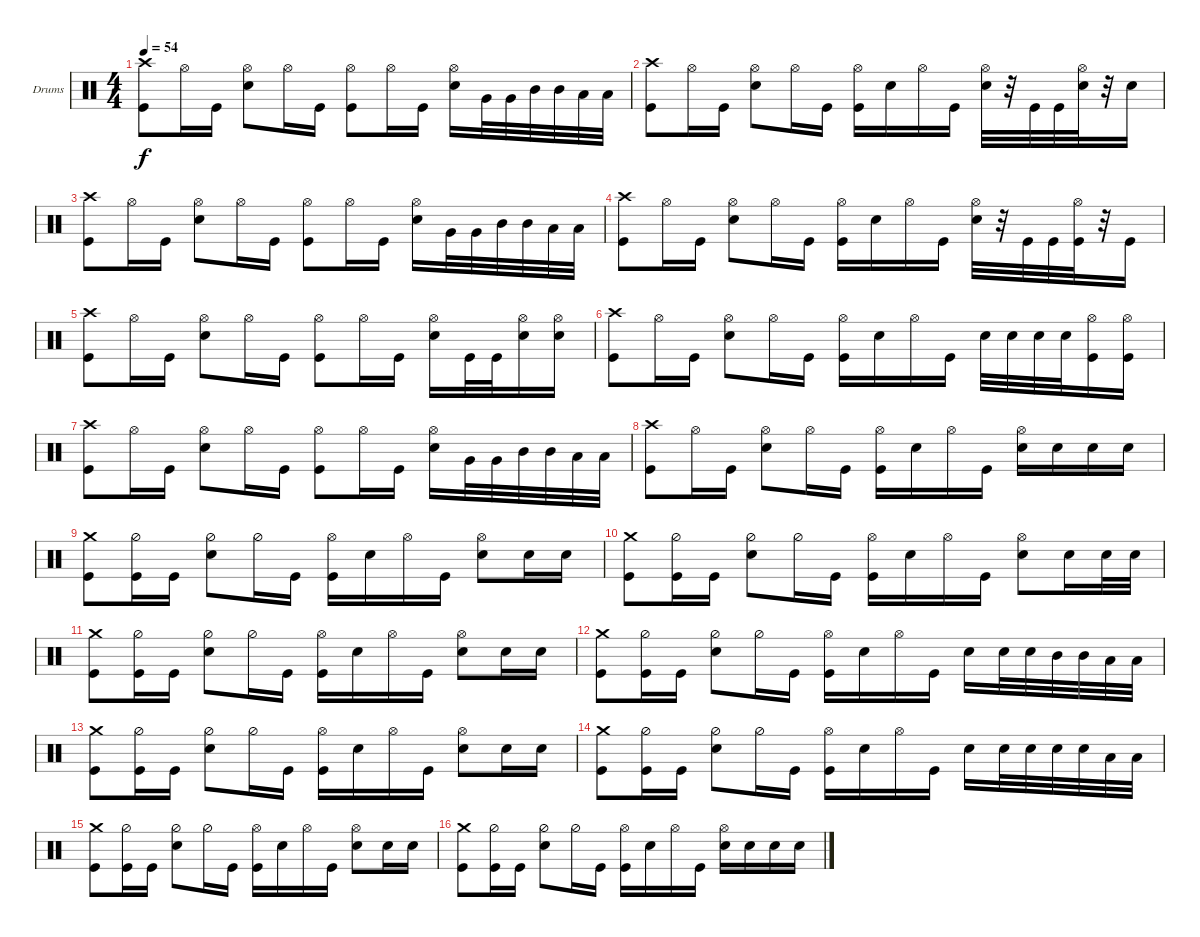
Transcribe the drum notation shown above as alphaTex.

\bracketExtendMode groupsimilarinstruments
\firstSystemTrackNameOrientation horizontal
\otherSystemsTrackNameOrientation horizontal
\track ("Drumkit" "Drums") {instrument percussion}
\staff {score}
\articulation defaults
\ts (4 4)
\tempo 54
\clef neutral
\ks c
("Crash high (hit)" "Kick (hit)").8{dy f} "Hi-Hat (open)".16 "Kick (hit)".16 ("Snare (hit) 2" "Hi-Hat (open)").8 "Hi-Hat (open)".16 "Kick (hit)".16 ("Hi-Hat (open)" "Kick (hit)").8 "Hi-Hat (open)".16 "Kick (hit)".16 ("Snare (hit) 2" "Hi-Hat (open)").16 "Very Low Tom (hit)".32 "Very Low Tom (hit)".32 "Mid Tom (hit)".32 "Mid Tom (hit)".32 "Low Tom (hit)".32 "Low Tom (hit)".32 |
("Crash high (hit)" "Kick (hit)").8 "Hi-Hat (open)".16 "Kick (hit)".16 ("Snare (hit) 2" "Hi-Hat (open)").8 "Hi-Hat (open)".16 "Kick (hit)".16 ("Hi-Hat (open)" "Kick (hit)").16 "Snare (hit) 2".16 "Hi-Hat (open)".16 "Kick (hit)".16 ("Snare (hit) 2" "Hi-Hat (open)").32 r.32 "Kick (hit)".32 "Kick (hit)".32 ("Snare (hit) 2" "Hi-Hat (open)").32 r.32 "Snare (hit) 2".16 |
("Crash high (hit)" "Kick (hit)").8 "Hi-Hat (open)".16 "Kick (hit)".16 ("Snare (hit) 2" "Hi-Hat (open)").8 "Hi-Hat (open)".16 "Kick (hit)".16 ("Hi-Hat (open)" "Kick (hit)").8 "Hi-Hat (open)".16 "Kick (hit)".16 ("Snare (hit) 2" "Hi-Hat (open)").16 "Very Low Tom (hit)".32 "Very Low Tom (hit)".32 "Mid Tom (hit)".32 "Mid Tom (hit)".32 "Low Tom (hit)".32 "Low Tom (hit)".32 |
("Crash high (hit)" "Kick (hit)").8 "Hi-Hat (open)".16 "Kick (hit)".16 ("Snare (hit) 2" "Hi-Hat (open)").8 "Hi-Hat (open)".16 "Kick (hit)".16 ("Hi-Hat (open)" "Kick (hit)").16 "Snare (hit) 2".16 "Hi-Hat (open)".16 "Kick (hit)".16 ("Snare (hit) 2" "Hi-Hat (open)").32 r.32 "Kick (hit)".32 "Kick (hit)".32 ("Hi-Hat (open)" "Kick (hit)").32 r.32 "Kick (hit)".16 |
("Crash high (hit)" "Kick (hit)").8 "Hi-Hat (open)".16 "Kick (hit)".16 ("Snare (hit) 2" "Hi-Hat (open)").8 "Hi-Hat (open)".16 "Kick (hit)".16 ("Hi-Hat (open)" "Kick (hit)").8 "Hi-Hat (open)".16 "Kick (hit)".16 ("Snare (hit) 2" "Hi-Hat (open)").16 "Kick (hit)".32 "Kick (hit)".32 ("Snare (hit) 2" "Hi-Hat (open)").16 ("Snare (hit) 2" "Hi-Hat (open)").16 |
("Crash high (hit)" "Kick (hit)").8 "Hi-Hat (open)".16 "Kick (hit)".16 ("Snare (hit) 2" "Hi-Hat (open)").8 "Hi-Hat (open)".16 "Kick (hit)".16 ("Hi-Hat (open)" "Kick (hit)").16 "Snare (hit) 2".16 "Hi-Hat (open)".16 "Kick (hit)".16 "Snare (hit) 2".32 "Snare (hit) 2".32 "Snare (hit) 2".32 "Snare (hit) 2".32 ("Kick (hit)" "Hi-Hat (open)").16 ("Kick (hit)" "Hi-Hat (open)").16 |
("Crash high (hit)" "Kick (hit)").8 "Hi-Hat (open)".16 "Kick (hit)".16 ("Snare (hit) 2" "Hi-Hat (open)").8 "Hi-Hat (open)".16 "Kick (hit)".16 ("Hi-Hat (open)" "Kick (hit)").8 "Hi-Hat (open)".16 "Kick (hit)".16 ("Snare (hit) 2" "Hi-Hat (open)").16 "Very Low Tom (hit)".32 "Very Low Tom (hit)".32 "Mid Tom (hit)".32 "Mid Tom (hit)".32 "Low Tom (hit)".32 "Low Tom (hit)".32 |
("Crash high (hit)" "Kick (hit)").8 "Hi-Hat (open)".16 "Kick (hit)".16 ("Snare (hit) 2" "Hi-Hat (open)").8 "Hi-Hat (open)".16 "Kick (hit)".16 ("Hi-Hat (open)" "Kick (hit)").16 "Snare (hit) 2".16 "Hi-Hat (open)".16 "Kick (hit)".16 ("Snare (hit) 2" "Hi-Hat (open)").16 "Snare (hit) 2".16 "Snare (hit) 2".16 "Snare (hit) 2".16 |
("Crash medium (hit)" "Kick (hit)").8 ("Kick (hit)" "Hi-Hat (half)").16 "Kick (hit)".16 ("Snare (hit) 2" "Hi-Hat (half)").8 "Hi-Hat (half)".16 "Kick (hit)".16 ("Kick (hit)" "Hi-Hat (open)").16 "Snare (hit) 2".16 "Hi-Hat (open)".16 "Kick (hit)".16 ("Snare (hit) 2" "Hi-Hat (open)").8 "Snare (hit) 2".16 "Snare (hit) 2".16 |
("Crash medium (hit)" "Kick (hit)").8 ("Kick (hit)" "Hi-Hat (half)").16 "Kick (hit)".16 ("Snare (hit) 2" "Hi-Hat (half)").8 "Hi-Hat (half)".16 "Kick (hit)".16 ("Kick (hit)" "Hi-Hat (open)").16 "Snare (hit) 2".16 "Hi-Hat (open)".16 "Kick (hit)".16 ("Snare (hit) 2" "Hi-Hat (open)").8 "Snare (hit) 2".16 "Snare (hit) 2".32 "Snare (hit) 2".32 |
("Crash medium (hit)" "Kick (hit)").8 ("Kick (hit)" "Hi-Hat (half)").16 "Kick (hit)".16 ("Snare (hit) 2" "Hi-Hat (half)").8 "Hi-Hat (half)".16 "Kick (hit)".16 ("Kick (hit)" "Hi-Hat (open)").16 "Snare (hit) 2".16 "Hi-Hat (open)".16 "Kick (hit)".16 ("Snare (hit) 2" "Hi-Hat (open)").8 "Snare (hit) 2".16 "Snare (hit) 2".16 |
("Crash medium (hit)" "Kick (hit)").8 ("Kick (hit)" "Hi-Hat (half)").16 "Kick (hit)".16 ("Snare (hit) 2" "Hi-Hat (half)").8 "Hi-Hat (half)".16 "Kick (hit)".16 ("Kick (hit)" "Hi-Hat (open)").16 "Snare (hit) 2".16 "Hi-Hat (open)".16 "Kick (hit)".16 "Snare (hit) 2".16 "Snare (hit) 2".32 "Snare (hit) 2".32 "Mid Tom (hit)".32 "Mid Tom (hit)".32 "Low Tom (hit)".32 "Low Tom (hit)".32 |
("Crash medium (hit)" "Kick (hit)").8 ("Kick (hit)" "Hi-Hat (half)").16 "Kick (hit)".16 ("Snare (hit) 2" "Hi-Hat (half)").8 "Hi-Hat (half)".16 "Kick (hit)".16 ("Kick (hit)" "Hi-Hat (open)").16 "Snare (hit) 2".16 "Hi-Hat (open)".16 "Kick (hit)".16 ("Snare (hit) 2" "Hi-Hat (open)").8 "Snare (hit) 2".16 "Snare (hit) 2".16 |
("Crash medium (hit)" "Kick (hit)").8 ("Kick (hit)" "Hi-Hat (half)").16 "Kick (hit)".16 ("Snare (hit) 2" "Hi-Hat (half)").8 "Hi-Hat (half)".16 "Kick (hit)".16 ("Kick (hit)" "Hi-Hat (open)").16 "Snare (hit) 2".16 "Hi-Hat (open)".16 "Kick (hit)".16 "Snare (hit) 2".16 "Snare (hit) 2".32 "Snare (hit) 2".32 "Snare (hit) 2".32 "Snare (hit) 2".32 "Low Tom (hit)".32 "Low Tom (hit)".32 |
("Crash medium (hit)" "Kick (hit)").8 ("Kick (hit)" "Hi-Hat (half)").16 "Kick (hit)".16 ("Snare (hit) 2" "Hi-Hat (half)").8 "Hi-Hat (half)".16 "Kick (hit)".16 ("Kick (hit)" "Hi-Hat (open)").16 "Snare (hit) 2".16 "Hi-Hat (open)".16 "Kick (hit)".16 ("Snare (hit) 2" "Hi-Hat (open)").8 "Snare (hit) 2".16 "Snare (hit) 2".16 |
("Crash medium (hit)" "Kick (hit)").8 ("Kick (hit)" "Hi-Hat (half)").16 "Kick (hit)".16 ("Snare (hit) 2" "Hi-Hat (half)").8 "Hi-Hat (half)".16 "Kick (hit)".16 ("Kick (hit)" "Hi-Hat (open)").16 "Snare (hit) 2".16 "Hi-Hat (open)".16 "Kick (hit)".16 ("Snare (hit) 2" "Hi-Hat (open)").16 "Snare (hit) 2".16 "Snare (hit) 2".16 "Snare (hit) 2".16
